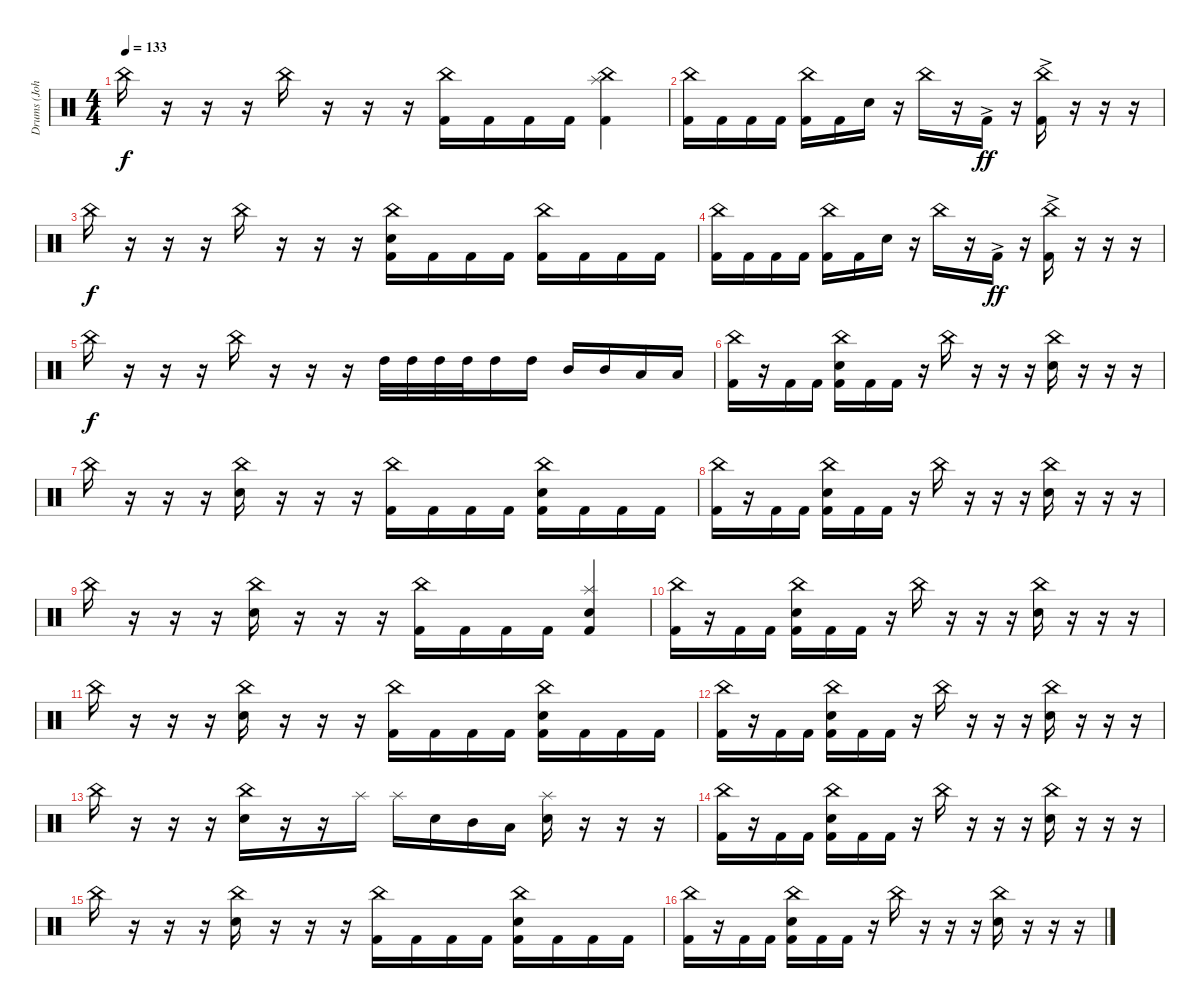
\track ("Drums (John)" "Drums (Joh") {instrument percussion}
\staff {score}
\articulation defaults
\ts (4 4)
\tempo 133
\clef neutral
\ks c "China (hit)".16{dy f}
r.16 r.16 r.16 "China (hit)".16 r.16 r.16 r.16 ("China (hit)" "Kick (hit) 2").16 "Kick (hit) 2".16 "Kick (hit) 2".16 "Kick (hit) 2".16 ("China (hit)" "Splash (hit)" "Kick (hit) 2").4 |
("China (hit)" "Kick (hit) 2").16 "Kick (hit) 2".16 "Kick (hit) 2".16 "Kick (hit) 2".16 ("China (hit)" "Kick (hit) 2").16 "Kick (hit) 2".16 "Electric Snare (hit)".16 r.16 "China (hit)".16 r.16 "Kick (hit) 2"{ac}.16{dy ff} r.16 ("China (hit)" "Kick (hit) 2"{ac}).16 r.16 r.16 r.16 |
"China (hit)".16{dy f} r.16 r.16 r.16 "China (hit)".16 r.16 r.16 r.16 ("China (hit)" "Electric Snare (hit)" "Kick (hit) 2").16 "Kick (hit) 2".16 "Kick (hit) 2".16 "Kick (hit) 2".16 ("China (hit)" "Kick (hit) 2").16 "Kick (hit) 2".16 "Kick (hit) 2".16 "Kick (hit) 2".16 |
("China (hit)" "Kick (hit) 2").16 "Kick (hit) 2".16 "Kick (hit) 2".16 "Kick (hit) 2".16 ("China (hit)" "Kick (hit) 2").16 "Kick (hit) 2".16 "Electric Snare (hit)".16 r.16 "China (hit)".16 r.16 "Kick (hit) 2"{ac}.16{dy ff} r.16 ("China (hit)" "Kick (hit) 2"{ac}).16 r.16 r.16 r.16 |
"China (hit)".16{dy f} r.16 r.16 r.16 "China (hit)".16 r.16 r.16 r.16 "High Tom (hit)".32 "High Tom (hit)".32 "High Tom (hit)".32 "High Tom (hit)".32 "High Tom (hit)".16 "High Tom (hit)".16 "Mid Tom (hit)".16 "Mid Tom (hit)".16 "Low Tom (hit)".16 "Low Tom (hit)".16 |
("China (hit)" "Kick (hit) 2").16 r.16 "Kick (hit) 2".16 "Kick (hit) 2".16 ("China (hit)" "Electric Snare (hit)" "Kick (hit) 2").16 "Kick (hit) 2".16 "Kick (hit) 2".16 r.16 "China (hit)".16 r.16 r.16 r.16 ("China (hit)" "Electric Snare (hit)").16 r.16 r.16 r.16 |
"China (hit)".16 r.16 r.16 r.16 ("China (hit)" "Electric Snare (hit)").16 r.16 r.16 r.16 ("China (hit)" "Kick (hit) 2").16 "Kick (hit) 2".16 "Kick (hit) 2".16 "Kick (hit) 2".16 ("China (hit)" "Electric Snare (hit)" "Kick (hit) 2").16 "Kick (hit) 2".16 "Kick (hit) 2".16 "Kick (hit) 2".16 |
("China (hit)" "Kick (hit) 2").16 r.16 "Kick (hit) 2".16 "Kick (hit) 2".16 ("China (hit)" "Electric Snare (hit)" "Kick (hit) 2").16 "Kick (hit) 2".16 "Kick (hit) 2".16 r.16 "China (hit)".16 r.16 r.16 r.16 ("China (hit)" "Electric Snare (hit)").16 r.16 r.16 r.16 |
"China (hit)".16 r.16 r.16 r.16 ("China (hit)" "Electric Snare (hit)").16 r.16 r.16 r.16 ("China (hit)" "Kick (hit) 2").16 "Kick (hit) 2".16 "Kick (hit) 2".16 "Kick (hit) 2".16 ("Splash (hit)" "Electric Snare (hit)" "Kick (hit) 2").4 |
("China (hit)" "Kick (hit) 2").16 r.16 "Kick (hit) 2".16 "Kick (hit) 2".16 ("China (hit)" "Electric Snare (hit)" "Kick (hit) 2").16 "Kick (hit) 2".16 "Kick (hit) 2".16 r.16 "China (hit)".16 r.16 r.16 r.16 ("China (hit)" "Electric Snare (hit)").16 r.16 r.16 r.16 |
"China (hit)".16 r.16 r.16 r.16 ("China (hit)" "Electric Snare (hit)").16 r.16 r.16 r.16 ("China (hit)" "Kick (hit) 2").16 "Kick (hit) 2".16 "Kick (hit) 2".16 "Kick (hit) 2".16 ("China (hit)" "Electric Snare (hit)" "Kick (hit) 2").16 "Kick (hit) 2".16 "Kick (hit) 2".16 "Kick (hit) 2".16 |
("China (hit)" "Kick (hit) 2").16 r.16 "Kick (hit) 2".16 "Kick (hit) 2".16 ("China (hit)" "Electric Snare (hit)" "Kick (hit) 2").16 "Kick (hit) 2".16 "Kick (hit) 2".16 r.16 "China (hit)".16 r.16 r.16 r.16 ("China (hit)" "Electric Snare (hit)").16 r.16 r.16 r.16 |
"China (hit)".16 r.16 r.16 r.16 ("China (hit)" "Electric Snare (hit)").16 r.16 r.16 "Splash (hit)".16 "Splash (hit)".16 "Electric Snare (hit)".16 "Mid Tom (hit)".16 "Low Tom (hit)".16 ("Splash (hit)" "Electric Snare (hit)").16 r.16 r.16 r.16 |
("China (hit)" "Kick (hit) 2").16 r.16 "Kick (hit) 2".16 "Kick (hit) 2".16 ("China (hit)" "Electric Snare (hit)" "Kick (hit) 2").16 "Kick (hit) 2".16 "Kick (hit) 2".16 r.16 "China (hit)".16 r.16 r.16 r.16 ("China (hit)" "Electric Snare (hit)").16 r.16 r.16 r.16 |
"China (hit)".16 r.16 r.16 r.16 ("China (hit)" "Electric Snare (hit)").16 r.16 r.16 r.16 ("China (hit)" "Kick (hit) 2").16 "Kick (hit) 2".16 "Kick (hit) 2".16 "Kick (hit) 2".16 ("China (hit)" "Electric Snare (hit)" "Kick (hit) 2").16 "Kick (hit) 2".16 "Kick (hit) 2".16 "Kick (hit) 2".16 |
("China (hit)" "Kick (hit) 2").16 r.16 "Kick (hit) 2".16 "Kick (hit) 2".16 ("China (hit)" "Electric Snare (hit)" "Kick (hit) 2").16 "Kick (hit) 2".16 "Kick (hit) 2".16 r.16 "China (hit)".16 r.16 r.16 r.16 ("China (hit)" "Electric Snare (hit)").16 r.16 r.16 r.16
